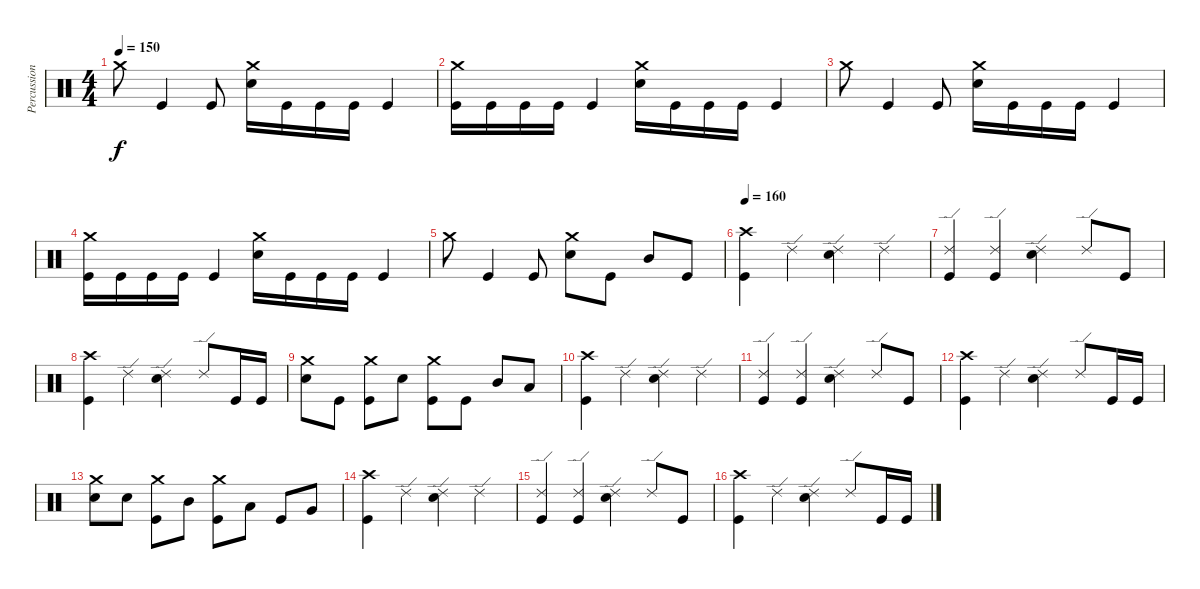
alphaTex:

\track ("Percussion" "Percussion") {instrument percussion}
\staff {score}
\articulation defaults
\ts (4 4)
\tempo 150
\clef neutral
\ks c "Crash medium (hit)".8{dy f} "Kick (hit)".4 "Kick (hit)".8
("Crash medium (hit)" "Electric Snare (hit)").16 "Kick (hit)".16 "Kick (hit)".16 "Kick (hit)".16 "Kick (hit)".4 |
("Crash medium (hit)" "Kick (hit)").16 "Kick (hit)".16 "Kick (hit)".16 "Kick (hit)".16 "Kick (hit)".4 ("Crash medium (hit)" "Electric Snare (hit)").16 "Kick (hit)".16 "Kick (hit)".16 "Kick (hit)".16 "Kick (hit)".4 |
"Crash medium (hit)".8 "Kick (hit)".4 "Kick (hit)".8 ("Crash medium (hit)" "Electric Snare (hit)").16 "Kick (hit)".16 "Kick (hit)".16 "Kick (hit)".16 "Kick (hit)".4 |
("Crash medium (hit)" "Kick (hit)").16 "Kick (hit)".16 "Kick (hit)".16 "Kick (hit)".16 "Kick (hit)".4 ("Crash medium (hit)" "Electric Snare (hit)").16 "Kick (hit)".16 "Kick (hit)".16 "Kick (hit)".16 "Kick (hit)".4 |
"Crash medium (hit)".8 "Kick (hit)".4 "Kick (hit)".8 ("Crash medium (hit)" "Electric Snare (hit)").8 "Kick (hit)".8 "Mid Tom (hit)".8 "Kick (hit)".8 |
\tempo 160
("Crash high (hit)" "Kick (hit)").4 "Ride (edge) 2".4 ("Ride (edge) 2" "Electric Snare (hit)").4 "Ride (edge) 2".4 |
("Ride (edge) 2" "Kick (hit)").4 ("Ride (edge) 2" "Kick (hit)").4 ("Ride (edge) 2" "Electric Snare (hit)").4 "Ride (edge) 2".8 "Kick (hit)".8 |
("Crash high (hit)" "Kick (hit)").4 "Ride (edge) 2".4 ("Ride (edge) 2" "Electric Snare (hit)").4 "Ride (edge) 2".8 "Kick (hit)".16 "Kick (hit)".16 |
("Crash medium (hit)" "Electric Snare (hit)").8 "Kick (hit)".8 ("Crash medium (hit)" "Kick (hit)").8 "Electric Snare (hit)".8 ("Crash medium (hit)" "Kick (hit)").8 "Kick (hit)".8 "Mid Tom (hit)".8 "Low Tom (hit)".8 |
("Crash high (hit)" "Kick (hit)").4 "Ride (edge) 2".4 ("Ride (edge) 2" "Electric Snare (hit)").4 "Ride (edge) 2".4 |
("Ride (edge) 2" "Kick (hit)").4 ("Ride (edge) 2" "Kick (hit)").4 ("Ride (edge) 2" "Electric Snare (hit)").4 "Ride (edge) 2".8 "Kick (hit)".8 |
("Crash high (hit)" "Kick (hit)").4 "Ride (edge) 2".4 ("Ride (edge) 2" "Electric Snare (hit)").4 "Ride (edge) 2".8 "Kick (hit)".16 "Kick (hit)".16 |
("Crash medium (hit)" "Electric Snare (hit)").8 "Electric Snare (hit)".8 ("Crash medium (hit)" "Kick (hit)").8 "Mid Tom (hit)".8 ("Crash medium (hit)" "Kick (hit)").8 "Low Tom (hit)".8 "Kick (hit)".8 "Very Low Tom (hit)".8 |
("Crash high (hit)" "Kick (hit)").4 "Ride (edge) 2".4 ("Ride (edge) 2" "Electric Snare (hit)").4 "Ride (edge) 2".4 |
("Ride (edge) 2" "Kick (hit)").4 ("Ride (edge) 2" "Kick (hit)").4 ("Ride (edge) 2" "Electric Snare (hit)").4 "Ride (edge) 2".8 "Kick (hit)".8 |
("Crash high (hit)" "Kick (hit)").4 "Ride (edge) 2".4 ("Ride (edge) 2" "Electric Snare (hit)").4 "Ride (edge) 2".8 "Kick (hit)".16 "Kick (hit)".16
